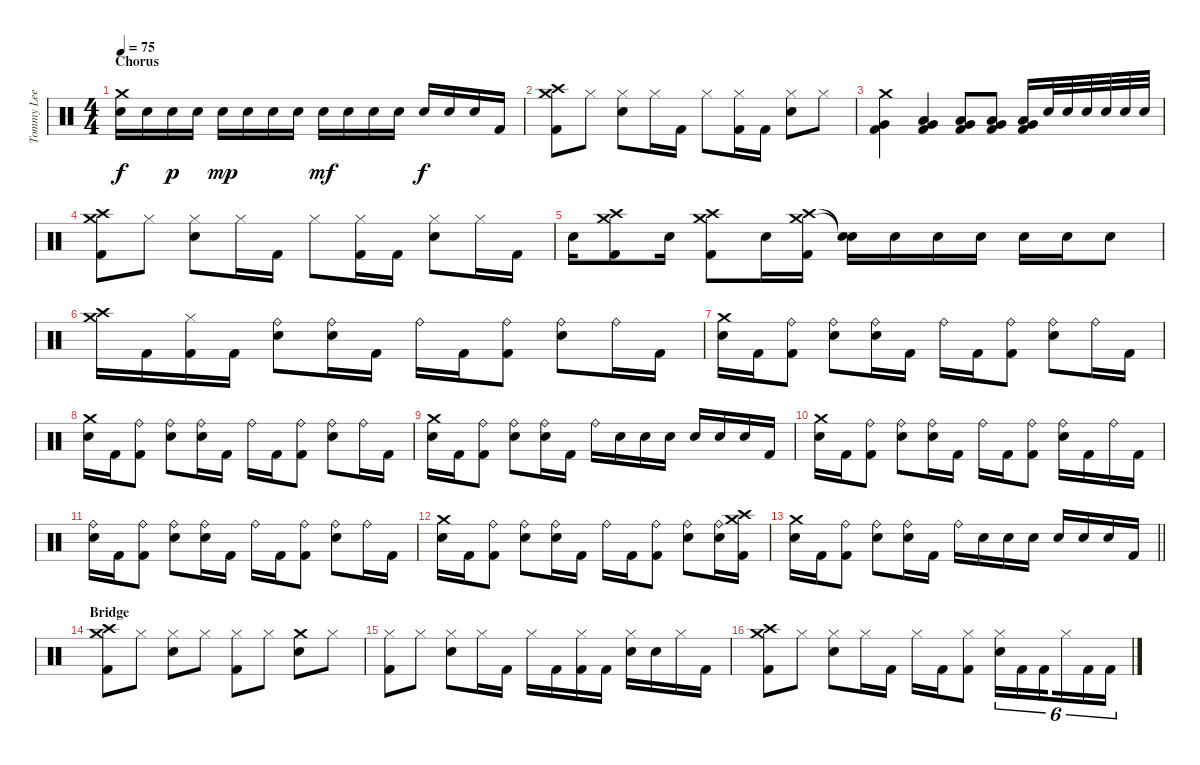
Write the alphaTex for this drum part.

\track ("Tommy Lee - Drums" "Tommy Lee ") {instrument percussion}
\staff {score}
\articulation defaults
\ts (4 4)
\section ("" "Chorus")
\tempo 75
\clef neutral
\ks c
("Crash medium (hit)" "Snare (hit) 2").16{dy f} "Snare (hit) 2".16 "Snare (hit) 2".16{dy p} "Snare (hit) 2".16 "Snare (hit) 2".16{dy mp} "Snare (hit) 2".16 "Snare (hit) 2".16 "Snare (hit) 2".16 "Snare (hit) 2".16{dy mf} "Snare (hit) 2".16 "Snare (hit) 2".16 "Snare (hit) 2".16 "Snare (hit) 2".16{dy f} "Snare (hit) 2".16 "Snare (hit) 2".16 "Kick (hit) 2".16 |
("Crash medium (hit)" "Crash high (hit)" "Kick (hit) 2").8 "Hi-Hat (closed)".8 ("Hi-Hat (closed)" "Snare (hit) 2").8 "Hi-Hat (closed)".16 "Kick (hit) 2".16 "Hi-Hat (closed)".8 ("Hi-Hat (closed)" "Kick (hit) 2").16 "Kick (hit) 2".16 ("Hi-Hat (closed)" "Snare (hit) 2").8 "Hi-Hat (closed)".8 |
("Crash medium (hit)" "Very Low Tom (hit)" "Kick (hit) 2").4 ("Low Tom (hit)" "Very Low Tom (hit)" "Kick (hit) 2").4 ("Low Tom (hit)" "Very Low Tom (hit)" "Kick (hit) 2").8 ("Low Tom (hit)" "Very Low Tom (hit)" "Kick (hit) 2").8 ("Low Tom (hit)" "Very Low Tom (hit)" "Kick (hit) 2").16 "Snare (hit) 2".32 "Snare (hit) 2".32 "Snare (hit) 2".32 "Snare (hit) 2".32 "Snare (hit) 2".32 "Snare (hit) 2".32 |
("Crash medium (hit)" "Crash high (hit)" "Kick (hit) 2").8 "Hi-Hat (closed)".8 ("Hi-Hat (closed)" "Snare (hit) 2").8 "Hi-Hat (closed)".16 "Kick (hit) 2".16 "Hi-Hat (closed)".8 ("Hi-Hat (closed)" "Kick (hit) 2").16 "Kick (hit) 2".16 ("Hi-Hat (closed)" "Snare (hit) 2").8 "Hi-Hat (closed)".16 "Kick (hit) 2".16 |
"Snare (hit) 2".16 ("Crash medium (hit)" "Crash high (hit)" "Kick (hit) 2").8 "Snare (hit) 2".16 ("Crash high (hit)" "Crash medium (hit)" "Kick (hit) 2").8 "Snare (hit) 2".16 ("Crash medium (hit)" "Crash high (hit)" "Kick (hit) 2").16 ("Snare (hit)"{t} "Snare (hit)"{t}).16 "Snare (hit) 2".16 "Snare (hit) 2".16 "Snare (hit) 2".16 "Snare (hit) 2".16 "Snare (hit) 2".16 "Snare (hit) 2".8 |
("Crash medium (hit)" "Crash high (hit)").16 "Kick (hit) 2".16 ("Hi-Hat (closed)" "Kick (hit) 2").16 "Kick (hit) 2".16 ("Ride (bell)" "Snare (hit) 2").8 ("Ride (bell)" "Snare (hit) 2").16 "Kick (hit) 2".16 "Ride (bell)".16 "Kick (hit) 2".16 ("Ride (bell)" "Kick (hit) 2").8 ("Ride (bell)" "Snare (hit) 2").8 "Ride (bell)".16 "Kick (hit) 2".16 |
("Crash medium (hit)" "Snare (hit) 2").16 "Kick (hit) 2".16 ("Ride (bell)" "Kick (hit) 2").8 ("Ride (bell)" "Snare (hit) 2").8 ("Ride (bell)" "Snare (hit) 2").16 "Kick (hit) 2".16 "Ride (bell)".16 "Kick (hit) 2".16 ("Ride (bell)" "Kick (hit) 2").8 ("Ride (bell)" "Snare (hit) 2").8 "Ride (bell)".16 "Kick (hit) 2".16 |
("Crash medium (hit)" "Snare (hit) 2").16 "Kick (hit) 2".16 ("Ride (bell)" "Kick (hit) 2").8 ("Ride (bell)" "Snare (hit) 2").8 ("Ride (bell)" "Snare (hit) 2").16 "Kick (hit) 2".16 "Ride (bell)".16 "Kick (hit) 2".16 ("Ride (bell)" "Kick (hit) 2").8 ("Ride (bell)" "Snare (hit) 2").8 "Ride (bell)".16 "Kick (hit) 2".16 |
("Crash medium (hit)" "Snare (hit) 2").16 "Kick (hit) 2".16 ("Ride (bell)" "Kick (hit) 2").8 ("Ride (bell)" "Snare (hit) 2").8 ("Ride (bell)" "Snare (hit) 2").16 "Kick (hit) 2".16 "Ride (bell)".16 "Snare (hit) 2".16 "Snare (hit) 2".16 "Snare (hit) 2".16 "Snare (hit) 2".16 "Snare (hit) 2".16 "Snare (hit) 2".16 "Kick (hit) 2".16 |
("Crash medium (hit)" "Snare (hit) 2").16 "Kick (hit) 2".16 ("Ride (bell)" "Kick (hit) 2").8 ("Ride (bell)" "Snare (hit) 2").8 ("Ride (bell)" "Snare (hit) 2").16 "Kick (hit) 2".16 "Ride (bell)".16 "Kick (hit) 2".16 ("Ride (bell)" "Kick (hit) 2").8 ("Ride (bell)" "Snare (hit) 2").16 "Kick (hit) 2".16 "Ride (bell)".16 "Kick (hit) 2".16 |
("Ride (bell)" "Snare (hit) 2").16 "Kick (hit) 2".16 ("Ride (bell)" "Kick (hit) 2").8 ("Ride (bell)" "Snare (hit) 2").8 ("Ride (bell)" "Snare (hit) 2").16 "Kick (hit) 2".16 "Ride (bell)".16 "Kick (hit) 2".16 ("Ride (bell)" "Kick (hit) 2").8 ("Ride (bell)" "Snare (hit) 2").8 "Ride (bell)".16 "Kick (hit) 2".16 |
("Crash medium (hit)" "Snare (hit) 2").16 "Kick (hit) 2".16 ("Ride (bell)" "Kick (hit) 2").8 ("Ride (bell)" "Snare (hit) 2").8 ("Ride (bell)" "Snare (hit) 2").16 "Kick (hit) 2".16 "Ride (bell)".16 "Kick (hit) 2".16 ("Ride (bell)" "Kick (hit) 2").8 ("Ride (bell)" "Snare (hit) 2").8 ("Ride (bell)" "Snare (hit) 2").16 ("Crash medium (hit)" "Crash high (hit)" "Kick (hit) 2").16 |
\barLineRight lightlight
("Crash medium (hit)" "Snare (hit) 2").16 "Kick (hit) 2".16 ("Ride (bell)" "Kick (hit) 2").8 ("Ride (bell)" "Snare (hit) 2").8 ("Ride (bell)" "Snare (hit) 2").16 "Kick (hit) 2".16 "Ride (bell)".16 "Snare (hit) 2".16 "Snare (hit) 2".16 "Snare (hit) 2".16 "Snare (hit) 2".16 "Snare (hit) 2".16 "Snare (hit) 2".16 "Kick (hit) 2".16 |
\section ("" "Bridge")
("Crash medium (hit)" "Crash high (hit)" "Kick (hit) 2").8 "Hi-Hat (closed)".8 ("Hi-Hat (closed)" "Snare (hit) 2").8 "Hi-Hat (closed)".8 ("Hi-Hat (closed)" "Kick (hit) 2").8 "Hi-Hat (closed)".8 ("Crash medium (hit)" "Snare (hit) 2").8 "Hi-Hat (closed)".8 |
("Hi-Hat (closed)" "Kick (hit) 2").8 "Hi-Hat (closed)".8 ("Hi-Hat (closed)" "Snare (hit) 2").8 "Hi-Hat (closed)".16 "Kick (hit) 2".16 "Hi-Hat (closed)".16 "Kick (hit) 2".16 ("Hi-Hat (closed)" "Kick (hit) 2").16 "Kick (hit) 2".16 ("Hi-Hat (closed)" "Snare (hit) 2").16 "Snare (hit) 2".16 "Hi-Hat (closed)".16 "Kick (hit) 2".16 |
("Crash medium (hit)" "Crash high (hit)" "Kick (hit) 2").8 "Hi-Hat (closed)".8 ("Hi-Hat (closed)" "Snare (hit) 2").8 "Hi-Hat (closed)".16 "Kick (hit) 2".16 "Hi-Hat (closed)".16 "Kick (hit) 2".16 ("Hi-Hat (closed)" "Kick (hit) 2").8 ("Hi-Hat (closed)" "Snare (hit) 2").16{tu (6 4)} "Kick (hit) 2".16{tu (6 4)} "Kick (hit) 2".16{tu (6 4) beam splitsecondary} "Hi-Hat (closed)".16{tu (6 4)} "Kick (hit) 2".16{tu (6 4)} "Kick (hit) 2".16{tu (6 4)}
